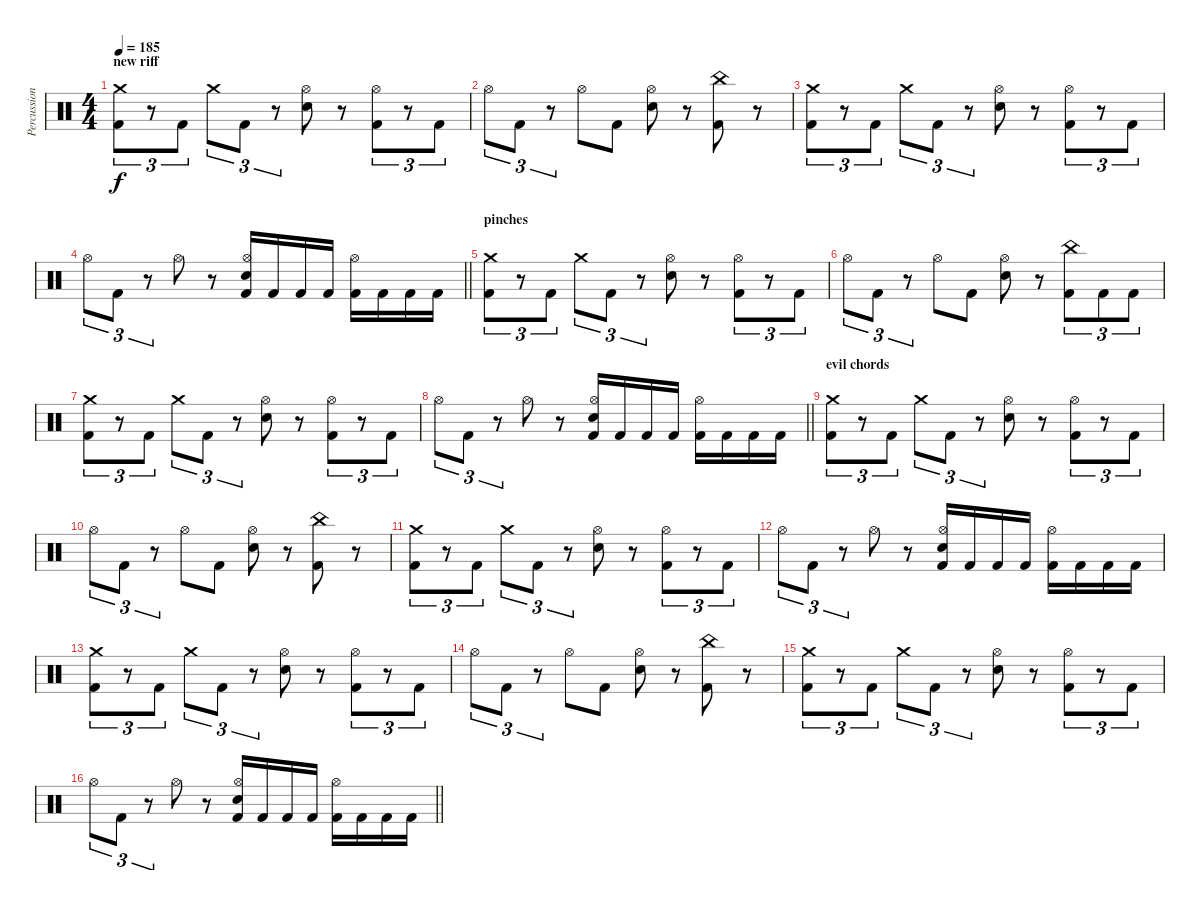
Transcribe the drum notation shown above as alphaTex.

\track ("Percussion" "Percussion") {instrument percussion}
\staff {score}
\articulation defaults
\ts (4 4)
\section ("" "new riff")
\tempo 185
\clef neutral
\ks c
("Crash medium (hit)" "Kick (hit) 2").8{tu (3 2) dy f} r.8{tu (3 2)} "Kick (hit) 2".8{tu (3 2)} "Crash medium (hit)".8{tu (3 2)} "Kick (hit) 2".8{tu (3 2)} r.8{tu (3 2)} ("Hi-Hat (open)" "Electric Snare (hit)").8 r.8 ("Hi-Hat (open)" "Kick (hit) 2").8{tu (3 2)} r.8{tu (3 2)} "Kick (hit) 2".8{tu (3 2)} |
"Hi-Hat (open)".8{tu (3 2)} "Kick (hit) 2".8{tu (3 2)} r.8{tu (3 2)} "Hi-Hat (open)".8 "Kick (hit) 2".8 ("Hi-Hat (open)" "Electric Snare (hit)").8 r.8 ("China (hit)" "Kick (hit) 2").8 r.8 |
("Crash medium (hit)" "Kick (hit) 2").8{tu (3 2)} r.8{tu (3 2)} "Kick (hit) 2".8{tu (3 2)} "Crash medium (hit)".8{tu (3 2)} "Kick (hit) 2".8{tu (3 2)} r.8{tu (3 2)} ("Hi-Hat (open)" "Electric Snare (hit)").8 r.8 ("Hi-Hat (open)" "Kick (hit) 2").8{tu (3 2)} r.8{tu (3 2)} "Kick (hit) 2".8{tu (3 2)} |
\barLineRight lightlight "Hi-Hat (open)".8{tu (3 2)} "Kick (hit) 2".8{tu (3 2)}
r.8{tu (3 2)} "Hi-Hat (open)".8 r.8 ("Hi-Hat (open)" "Electric Snare (hit)" "Kick (hit) 2").16 "Kick (hit) 2".16 "Kick (hit) 2".16 "Kick (hit) 2".16 ("Hi-Hat (open)" "Kick (hit) 2").16 "Kick (hit) 2".16 "Kick (hit) 2".16 "Kick (hit) 2".16 |
\section ("" "pinches")
("Crash medium (hit)" "Kick (hit) 2").8{tu (3 2)} r.8{tu (3 2)} "Kick (hit) 2".8{tu (3 2)} "Crash medium (hit)".8{tu (3 2)} "Kick (hit) 2".8{tu (3 2)} r.8{tu (3 2)} ("Hi-Hat (open)" "Electric Snare (hit)").8 r.8 ("Hi-Hat (open)" "Kick (hit) 2").8{tu (3 2)} r.8{tu (3 2)} "Kick (hit) 2".8{tu (3 2)} |
"Hi-Hat (open)".8{tu (3 2)} "Kick (hit) 2".8{tu (3 2)} r.8{tu (3 2)} "Hi-Hat (open)".8 "Kick (hit) 2".8 ("Hi-Hat (open)" "Electric Snare (hit)").8 r.8 ("China (hit)" "Kick (hit) 2").8{tu (3 2)} "Kick (hit) 2".8{tu (3 2)} "Kick (hit) 2".8{tu (3 2)} |
("Crash medium (hit)" "Kick (hit) 2").8{tu (3 2)} r.8{tu (3 2)} "Kick (hit) 2".8{tu (3 2)} "Crash medium (hit)".8{tu (3 2)} "Kick (hit) 2".8{tu (3 2)} r.8{tu (3 2)} ("Hi-Hat (open)" "Electric Snare (hit)").8 r.8 ("Hi-Hat (open)" "Kick (hit) 2").8{tu (3 2)} r.8{tu (3 2)} "Kick (hit) 2".8{tu (3 2)} |
\barLineRight lightlight "Hi-Hat (open)".8{tu (3 2)} "Kick (hit) 2".8{tu (3 2)}
r.8{tu (3 2)} "Hi-Hat (open)".8 r.8 ("Hi-Hat (open)" "Electric Snare (hit)" "Kick (hit) 2").16 "Kick (hit) 2".16 "Kick (hit) 2".16 "Kick (hit) 2".16 ("Hi-Hat (open)" "Kick (hit) 2").16 "Kick (hit) 2".16 "Kick (hit) 2".16 "Kick (hit) 2".16 |
\section ("" "evil chords")
("Crash medium (hit)" "Kick (hit) 2").8{tu (3 2)} r.8{tu (3 2)} "Kick (hit) 2".8{tu (3 2)} "Crash medium (hit)".8{tu (3 2)} "Kick (hit) 2".8{tu (3 2)} r.8{tu (3 2)} ("Hi-Hat (open)" "Electric Snare (hit)").8 r.8 ("Hi-Hat (open)" "Kick (hit) 2").8{tu (3 2)} r.8{tu (3 2)} "Kick (hit) 2".8{tu (3 2)} |
"Hi-Hat (open)".8{tu (3 2)} "Kick (hit) 2".8{tu (3 2)} r.8{tu (3 2)} "Hi-Hat (open)".8 "Kick (hit) 2".8 ("Hi-Hat (open)" "Electric Snare (hit)").8 r.8 ("China (hit)" "Kick (hit) 2").8 r.8 |
("Crash medium (hit)" "Kick (hit) 2").8{tu (3 2)} r.8{tu (3 2)} "Kick (hit) 2".8{tu (3 2)} "Crash medium (hit)".8{tu (3 2)} "Kick (hit) 2".8{tu (3 2)} r.8{tu (3 2)} ("Hi-Hat (open)" "Electric Snare (hit)").8 r.8 ("Hi-Hat (open)" "Kick (hit) 2").8{tu (3 2)} r.8{tu (3 2)} "Kick (hit) 2".8{tu (3 2)} |
"Hi-Hat (open)".8{tu (3 2)} "Kick (hit) 2".8{tu (3 2)} r.8{tu (3 2)} "Hi-Hat (open)".8 r.8 ("Hi-Hat (open)" "Electric Snare (hit)" "Kick (hit) 2").16 "Kick (hit) 2".16 "Kick (hit) 2".16 "Kick (hit) 2".16 ("Hi-Hat (open)" "Kick (hit) 2").16 "Kick (hit) 2".16 "Kick (hit) 2".16 "Kick (hit) 2".16 |
("Crash medium (hit)" "Kick (hit) 2").8{tu (3 2)} r.8{tu (3 2)} "Kick (hit) 2".8{tu (3 2)} "Crash medium (hit)".8{tu (3 2)} "Kick (hit) 2".8{tu (3 2)} r.8{tu (3 2)} ("Hi-Hat (open)" "Electric Snare (hit)").8 r.8 ("Hi-Hat (open)" "Kick (hit) 2").8{tu (3 2)} r.8{tu (3 2)} "Kick (hit) 2".8{tu (3 2)} |
"Hi-Hat (open)".8{tu (3 2)} "Kick (hit) 2".8{tu (3 2)} r.8{tu (3 2)} "Hi-Hat (open)".8 "Kick (hit) 2".8 ("Hi-Hat (open)" "Electric Snare (hit)").8 r.8 ("China (hit)" "Kick (hit) 2").8 r.8 |
("Crash medium (hit)" "Kick (hit) 2").8{tu (3 2)} r.8{tu (3 2)} "Kick (hit) 2".8{tu (3 2)} "Crash medium (hit)".8{tu (3 2)} "Kick (hit) 2".8{tu (3 2)} r.8{tu (3 2)} ("Hi-Hat (open)" "Electric Snare (hit)").8 r.8 ("Hi-Hat (open)" "Kick (hit) 2").8{tu (3 2)} r.8{tu (3 2)} "Kick (hit) 2".8{tu (3 2)} |
\barLineRight lightlight "Hi-Hat (open)".8{tu (3 2)} "Kick (hit) 2".8{tu (3 2)}
r.8{tu (3 2)} "Hi-Hat (open)".8 r.8 ("Hi-Hat (open)" "Electric Snare (hit)" "Kick (hit) 2").16 "Kick (hit) 2".16 "Kick (hit) 2".16 "Kick (hit) 2".16 ("Hi-Hat (open)" "Kick (hit) 2").16 "Kick (hit) 2".16 "Kick (hit) 2".16 "Kick (hit) 2".16
